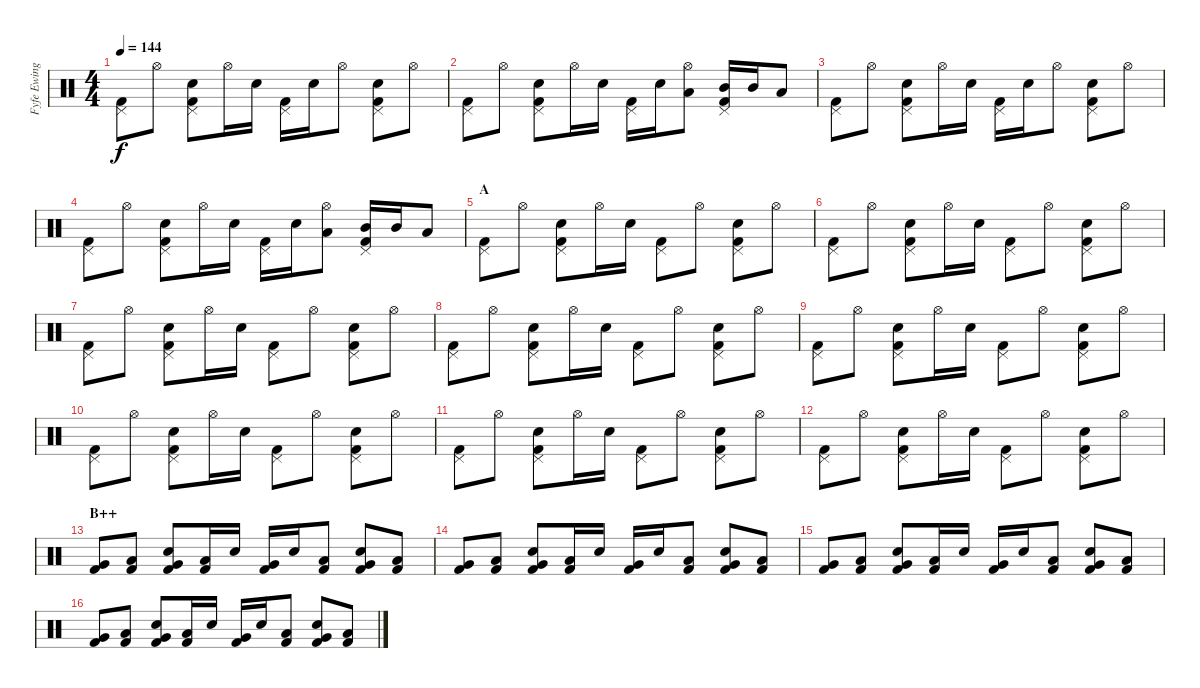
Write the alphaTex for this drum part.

\track ("Fyfe Ewing" "Fyfe Ewing") {instrument percussion}
\staff {score}
\articulation defaults
\ts (4 4)
\tempo 144
\clef neutral
\ks c
("Pedal Hi-Hat (hit)" "Kick (hit) 2").8{dy f} "Hi-Hat (open)".8 ("Pedal Hi-Hat (hit)" "Snare (hit) 2" "Kick (hit) 2").8 "Hi-Hat (open)".16 "Snare (hit) 2".16 ("Pedal Hi-Hat (hit)" "Kick (hit) 2").16 "Snare (hit) 2".16 "Hi-Hat (open)".8 ("Pedal Hi-Hat (hit)" "Snare (hit) 2" "Kick (hit) 2").8 "Hi-Hat (open)".8 |
("Pedal Hi-Hat (hit)" "Kick (hit) 2").8 "Hi-Hat (open)".8 ("Pedal Hi-Hat (hit)" "Snare (hit) 2" "Kick (hit) 2").8 "Hi-Hat (open)".16 "Snare (hit) 2".16 ("Pedal Hi-Hat (hit)" "Kick (hit) 2").16 "Snare (hit) 2".16 ("Hi-Hat (open)" "Low Tom (hit)").8 ("Pedal Hi-Hat (hit)" "Mid Tom (hit)" "Kick (hit) 2").16 "Mid Tom (hit)".16 "Low Tom (hit)".8 |
("Pedal Hi-Hat (hit)" "Kick (hit) 2").8 "Hi-Hat (open)".8 ("Pedal Hi-Hat (hit)" "Snare (hit) 2" "Kick (hit) 2").8 "Hi-Hat (open)".16 "Snare (hit) 2".16 ("Pedal Hi-Hat (hit)" "Kick (hit) 2").16 "Snare (hit) 2".16 "Hi-Hat (open)".8 ("Pedal Hi-Hat (hit)" "Snare (hit) 2" "Kick (hit) 2").8 "Hi-Hat (open)".8 |
("Pedal Hi-Hat (hit)" "Kick (hit) 2").8 "Hi-Hat (open)".8 ("Pedal Hi-Hat (hit)" "Snare (hit) 2" "Kick (hit) 2").8 "Hi-Hat (open)".16 "Snare (hit) 2".16 ("Pedal Hi-Hat (hit)" "Kick (hit) 2").16 "Snare (hit) 2".16 ("Hi-Hat (open)" "Low Tom (hit)").8 ("Pedal Hi-Hat (hit)" "Mid Tom (hit)" "Kick (hit) 2").16 "Mid Tom (hit)".16 "Low Tom (hit)".8 |
\section ("" "A")
("Pedal Hi-Hat (hit)" "Kick (hit) 2").8 "Hi-Hat (open)".8 ("Pedal Hi-Hat (hit)" "Snare (hit) 2" "Kick (hit) 2").8 "Hi-Hat (open)".16 "Snare (hit) 2".16 ("Pedal Hi-Hat (hit)" "Kick (hit) 2").8 "Hi-Hat (open)".8 ("Pedal Hi-Hat (hit)" "Snare (hit) 2" "Kick (hit) 2").8 "Hi-Hat (open)".8 |
("Pedal Hi-Hat (hit)" "Kick (hit) 2").8 "Hi-Hat (open)".8 ("Pedal Hi-Hat (hit)" "Snare (hit) 2" "Kick (hit) 2").8 "Hi-Hat (open)".16 "Snare (hit) 2".16 ("Pedal Hi-Hat (hit)" "Kick (hit) 2").8 "Hi-Hat (open)".8 ("Pedal Hi-Hat (hit)" "Snare (hit) 2" "Kick (hit) 2").8 "Hi-Hat (open)".8 |
("Pedal Hi-Hat (hit)" "Kick (hit) 2").8 "Hi-Hat (open)".8 ("Pedal Hi-Hat (hit)" "Snare (hit) 2" "Kick (hit) 2").8 "Hi-Hat (open)".16 "Snare (hit) 2".16 ("Pedal Hi-Hat (hit)" "Kick (hit) 2").8 "Hi-Hat (open)".8 ("Pedal Hi-Hat (hit)" "Snare (hit) 2" "Kick (hit) 2").8 "Hi-Hat (open)".8 |
("Pedal Hi-Hat (hit)" "Kick (hit) 2").8 "Hi-Hat (open)".8 ("Pedal Hi-Hat (hit)" "Snare (hit) 2" "Kick (hit) 2").8 "Hi-Hat (open)".16 "Snare (hit) 2".16 ("Pedal Hi-Hat (hit)" "Kick (hit) 2").8 "Hi-Hat (open)".8 ("Pedal Hi-Hat (hit)" "Snare (hit) 2" "Kick (hit) 2").8 "Hi-Hat (open)".8 |
("Pedal Hi-Hat (hit)" "Kick (hit) 2").8 "Hi-Hat (open)".8 ("Pedal Hi-Hat (hit)" "Snare (hit) 2" "Kick (hit) 2").8 "Hi-Hat (open)".16 "Snare (hit) 2".16 ("Pedal Hi-Hat (hit)" "Kick (hit) 2").8 "Hi-Hat (open)".8 ("Pedal Hi-Hat (hit)" "Snare (hit) 2" "Kick (hit) 2").8 "Hi-Hat (open)".8 |
("Pedal Hi-Hat (hit)" "Kick (hit) 2").8 "Hi-Hat (open)".8 ("Pedal Hi-Hat (hit)" "Snare (hit) 2" "Kick (hit) 2").8 "Hi-Hat (open)".16 "Snare (hit) 2".16 ("Pedal Hi-Hat (hit)" "Kick (hit) 2").8 "Hi-Hat (open)".8 ("Pedal Hi-Hat (hit)" "Snare (hit) 2" "Kick (hit) 2").8 "Hi-Hat (open)".8 |
("Pedal Hi-Hat (hit)" "Kick (hit) 2").8 "Hi-Hat (open)".8 ("Pedal Hi-Hat (hit)" "Snare (hit) 2" "Kick (hit) 2").8 "Hi-Hat (open)".16 "Snare (hit) 2".16 ("Pedal Hi-Hat (hit)" "Kick (hit) 2").8 "Hi-Hat (open)".8 ("Pedal Hi-Hat (hit)" "Snare (hit) 2" "Kick (hit) 2").8 "Hi-Hat (open)".8 |
("Pedal Hi-Hat (hit)" "Kick (hit) 2").8 "Hi-Hat (open)".8 ("Pedal Hi-Hat (hit)" "Snare (hit) 2" "Kick (hit) 2").8 "Hi-Hat (open)".16 "Snare (hit) 2".16 ("Pedal Hi-Hat (hit)" "Kick (hit) 2").8 "Hi-Hat (open)".8 ("Pedal Hi-Hat (hit)" "Snare (hit) 2" "Kick (hit) 2").8 "Hi-Hat (open)".8 |
\section ("" "B++")
("Very Low Tom (hit)" "Kick (hit) 2").8 ("Low Floor Tom (hit)" "Kick (hit) 2").8 ("Very Low Tom (hit)" "Snare (hit) 2" "Kick (hit) 2").8 ("Low Floor Tom (hit)" "Kick (hit) 2").16 "Snare (hit) 2".16 ("Very Low Tom (hit)" "Kick (hit) 2").16 "Snare (hit) 2".16 ("Low Floor Tom (hit)" "Kick (hit) 2").8 ("Very Low Tom (hit)" "Snare (hit) 2" "Kick (hit) 2").8 ("Low Floor Tom (hit)" "Kick (hit) 2").8 |
("Very Low Tom (hit)" "Kick (hit) 2").8 ("Low Floor Tom (hit)" "Kick (hit) 2").8 ("Very Low Tom (hit)" "Snare (hit) 2" "Kick (hit) 2").8 ("Low Floor Tom (hit)" "Kick (hit) 2").16 "Snare (hit) 2".16 ("Very Low Tom (hit)" "Kick (hit) 2").16 "Snare (hit) 2".16 ("Low Floor Tom (hit)" "Kick (hit) 2").8 ("Very Low Tom (hit)" "Snare (hit) 2" "Kick (hit) 2").8 ("Low Floor Tom (hit)" "Kick (hit) 2").8 |
("Very Low Tom (hit)" "Kick (hit) 2").8 ("Low Floor Tom (hit)" "Kick (hit) 2").8 ("Very Low Tom (hit)" "Snare (hit) 2" "Kick (hit) 2").8 ("Low Floor Tom (hit)" "Kick (hit) 2").16 "Snare (hit) 2".16 ("Very Low Tom (hit)" "Kick (hit) 2").16 "Snare (hit) 2".16 ("Low Floor Tom (hit)" "Kick (hit) 2").8 ("Very Low Tom (hit)" "Snare (hit) 2" "Kick (hit) 2").8 ("Low Floor Tom (hit)" "Kick (hit) 2").8 |
("Very Low Tom (hit)" "Kick (hit) 2").8 ("Low Floor Tom (hit)" "Kick (hit) 2").8 ("Very Low Tom (hit)" "Snare (hit) 2" "Kick (hit) 2").8 ("Low Floor Tom (hit)" "Kick (hit) 2").16 "Snare (hit) 2".16 ("Very Low Tom (hit)" "Kick (hit) 2").16 "Snare (hit) 2".16 ("Low Floor Tom (hit)" "Kick (hit) 2").8 ("Very Low Tom (hit)" "Snare (hit) 2" "Kick (hit) 2").8 ("Low Floor Tom (hit)" "Kick (hit) 2").8
